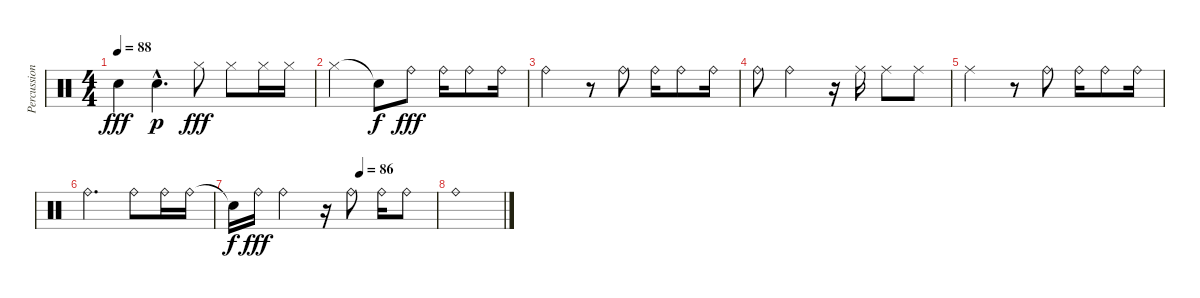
\track ("Percussions" "Percussion") {instrument percussion}
\staff {score}
\articulation defaults
\ts (4 4)
\tempo 88
\clef neutral
\ks c "Electric Snare (hit)".4{dy fff} "Electric Snare (hit)"{hac}.4{d dy p} "Hi-Hat (closed)".8{dy fff} "Hi-Hat (closed)".8 "Hi-Hat (closed)".16 "Hi-Hat (closed)".16
|
"Hi-Hat (closed)".2 "Snare (hit)"{t}.8{dy f} "Ride (bell)".8{dy fff} "Ride (bell)".16 "Ride (bell)".8 "Ride (bell)".16 |
"Ride (bell)".2 r.8 "Ride (bell)".8 "Ride (bell)".16 "Ride (bell)".8 "Ride (bell)".16 |
"Ride (bell)".8 "Ride (bell)".2 r.16 "Ride (middle)".16 "Ride (middle)".8 "Ride (middle)".8 |
"Ride (middle)".2 r.8 "Ride (bell)".8 "Ride (bell)".16 "Ride (bell)".8 "Ride (bell)".16 |
"Ride (bell)".2{d} "Ride (bell)".8 "Ride (bell)".16 "Ride (bell)".16 |
\tempo (86 0.625)
"Snare (hit)"{t}.16{dy f} "Ride (bell)".16{dy fff} "Ride (bell)".2 r.16 "Ride (bell)".8 "Ride (bell)".16 "Ride (bell)".8 |
"Ride (bell)".1
